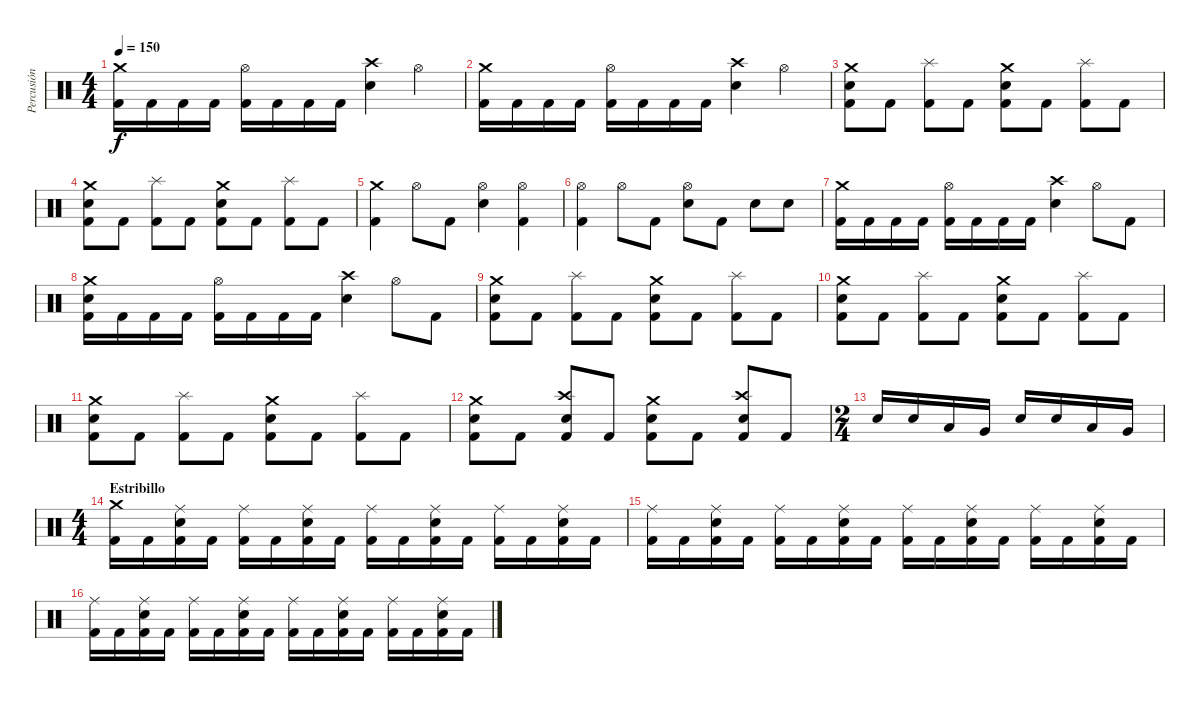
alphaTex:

\track ("Percusión" "Percusión") {instrument percussion}
\staff {score}
\articulation defaults
\ts (4 4)
\tempo 150
\clef neutral
\ks c
("Crash medium (hit)" "Kick (hit) 2").16{dy f} "Kick (hit) 2".16 "Kick (hit) 2".16 "Kick (hit) 2".16 ("Hi-Hat (open)" "Kick (hit) 2").16 "Kick (hit) 2".16 "Kick (hit) 2".16 "Kick (hit) 2".16 ("Crash high (hit)" "Snare (hit) 2").4 "Hi-Hat (open)".4 |
("Crash medium (hit)" "Kick (hit) 2").16 "Kick (hit) 2".16 "Kick (hit) 2".16 "Kick (hit) 2".16 ("Hi-Hat (open)" "Kick (hit) 2").16 "Kick (hit) 2".16 "Kick (hit) 2".16 "Kick (hit) 2".16 ("Crash high (hit)" "Snare (hit) 2").4 "Hi-Hat (open)".4 |
("Crash medium (hit)" "Kick (hit) 2" "Snare (hit) 2").8 "Kick (hit) 2".8 ("Splash (hit)" "Kick (hit) 2").8 "Kick (hit) 2".8 ("Crash medium (hit)" "Kick (hit) 2" "Snare (hit) 2").8 "Kick (hit) 2".8 ("Splash (hit)" "Kick (hit) 2").8 "Kick (hit) 2".8 |
("Crash medium (hit)" "Kick (hit) 2" "Snare (hit) 2").8 "Kick (hit) 2".8 ("Splash (hit)" "Kick (hit) 2").8 "Kick (hit) 2".8 ("Crash medium (hit)" "Kick (hit) 2" "Snare (hit) 2").8 "Kick (hit) 2".8 ("Splash (hit)" "Kick (hit) 2").8 "Kick (hit) 2".8 |
("Crash medium (hit)" "Kick (hit) 2").4 "Hi-Hat (open)".8 "Kick (hit) 2".8 ("Hi-Hat (open)" "Snare (hit) 2").4 ("Hi-Hat (open)" "Kick (hit) 2").4 |
("Hi-Hat (open)" "Kick (hit) 2").4 "Hi-Hat (open)".8 "Kick (hit) 2".8 ("Hi-Hat (open)" "Snare (hit) 2").8 "Kick (hit) 2".8 "Snare (hit) 2".8 "Snare (hit) 2".8 |
("Crash medium (hit)" "Kick (hit) 2").16 "Kick (hit) 2".16 "Kick (hit) 2".16 "Kick (hit) 2".16 ("Hi-Hat (open)" "Kick (hit) 2").16 "Kick (hit) 2".16 "Kick (hit) 2".16 "Kick (hit) 2".16 ("Crash high (hit)" "Snare (hit) 2").4 "Hi-Hat (open)".8 "Kick (hit) 2".8 |
("Crash medium (hit)" "Kick (hit) 2" "Snare (hit) 2").16 "Kick (hit) 2".16 "Kick (hit) 2".16 "Kick (hit) 2".16 ("Hi-Hat (open)" "Kick (hit) 2").16 "Kick (hit) 2".16 "Kick (hit) 2".16 "Kick (hit) 2".16 ("Crash high (hit)" "Snare (hit) 2").4 "Hi-Hat (open)".8 "Kick (hit) 2".8 |
("Crash medium (hit)" "Kick (hit) 2" "Snare (hit) 2").8 "Kick (hit) 2".8 ("Splash (hit)" "Kick (hit) 2").8 "Kick (hit) 2".8 ("Crash medium (hit)" "Kick (hit) 2" "Snare (hit) 2").8 "Kick (hit) 2".8 ("Splash (hit)" "Kick (hit) 2").8 "Kick (hit) 2".8 |
("Crash medium (hit)" "Kick (hit) 2" "Snare (hit) 2").8 "Kick (hit) 2".8 ("Splash (hit)" "Kick (hit) 2").8 "Kick (hit) 2".8 ("Crash medium (hit)" "Kick (hit) 2" "Snare (hit) 2").8 "Kick (hit) 2".8 ("Splash (hit)" "Kick (hit) 2").8 "Kick (hit) 2".8 |
("Crash medium (hit)" "Kick (hit) 2" "Snare (hit) 2").8 "Kick (hit) 2".8 ("Splash (hit)" "Kick (hit) 2").8 "Kick (hit) 2".8 ("Crash medium (hit)" "Kick (hit) 2" "Snare (hit) 2").8 "Kick (hit) 2".8 ("Splash (hit)" "Kick (hit) 2").8 "Kick (hit) 2".8 |
("Crash medium (hit)" "Kick (hit) 2" "Snare (hit) 2").8 "Kick (hit) 2".8 ("Crash high (hit)" "Kick (hit) 2" "Snare (hit) 2").8 "Kick (hit) 2".8 ("Crash medium (hit)" "Kick (hit) 2" "Snare (hit) 2").8 "Kick (hit) 2".8 ("Crash high (hit)" "Kick (hit) 2" "Snare (hit) 2").8 "Kick (hit) 2".8 |
\ts (2 4)
"Snare (hit) 2".16 "Snare (hit) 2".16 "Low Tom (hit)".16 "Very Low Tom (hit)".16 "Snare (hit) 2".16 "Snare (hit) 2".16 "Low Tom (hit)".16 "Very Low Tom (hit)".16 |
\ts (4 4)
\section ("" "Estribillo")
("Crash medium (hit)" "Kick (hit) 2").16 "Kick (hit) 2".16 ("Ride (middle)" "Kick (hit) 2" "Snare (hit) 2").16 "Kick (hit) 2".16 ("Ride (middle)" "Kick (hit) 2").16 "Kick (hit) 2".16 ("Ride (middle)" "Kick (hit) 2" "Snare (hit) 2").16 "Kick (hit) 2".16 ("Ride (middle)" "Kick (hit) 2").16 "Kick (hit) 2".16 ("Ride (middle)" "Kick (hit) 2" "Snare (hit) 2").16 "Kick (hit) 2".16 ("Ride (middle)" "Kick (hit) 2").16 "Kick (hit) 2".16 ("Ride (middle)" "Kick (hit) 2" "Snare (hit) 2").16 "Kick (hit) 2".16 |
("Ride (middle)" "Kick (hit) 2").16 "Kick (hit) 2".16 ("Ride (middle)" "Kick (hit) 2" "Snare (hit) 2").16 "Kick (hit) 2".16 ("Ride (middle)" "Kick (hit) 2").16 "Kick (hit) 2".16 ("Ride (middle)" "Kick (hit) 2" "Snare (hit) 2").16 "Kick (hit) 2".16 ("Ride (middle)" "Kick (hit) 2").16 "Kick (hit) 2".16 ("Ride (middle)" "Kick (hit) 2" "Snare (hit) 2").16 "Kick (hit) 2".16 ("Ride (middle)" "Kick (hit) 2").16 "Kick (hit) 2".16 ("Ride (middle)" "Kick (hit) 2" "Snare (hit) 2").16 "Kick (hit) 2".16 |
("Ride (middle)" "Kick (hit) 2").16 "Kick (hit) 2".16 ("Ride (middle)" "Kick (hit) 2" "Snare (hit) 2").16 "Kick (hit) 2".16 ("Ride (middle)" "Kick (hit) 2").16 "Kick (hit) 2".16 ("Ride (middle)" "Kick (hit) 2" "Snare (hit) 2").16 "Kick (hit) 2".16 ("Ride (middle)" "Kick (hit) 2").16 "Kick (hit) 2".16 ("Ride (middle)" "Kick (hit) 2" "Snare (hit) 2").16 "Kick (hit) 2".16 ("Ride (middle)" "Kick (hit) 2").16 "Kick (hit) 2".16 ("Ride (middle)" "Kick (hit) 2" "Snare (hit) 2").16 "Kick (hit) 2".16
